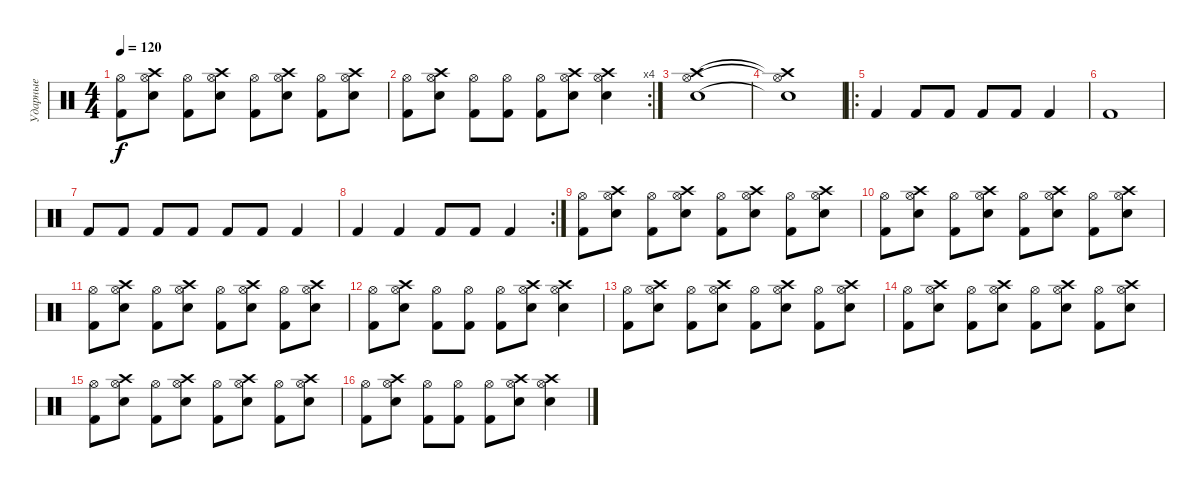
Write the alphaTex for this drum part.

\track ("Ударные" "Ударные") {instrument percussion}
\staff {score}
\articulation defaults
\ts (4 4)
\tempo 120
\clef neutral
\ks c
("Hi-Hat (open)" "Kick (hit) 2").8{dy f} ("Hi-Hat (open)" "Crash high (hit)" "Snare (hit) 2").8 ("Hi-Hat (open)" "Kick (hit) 2").8 ("Hi-Hat (open)" "Crash high (hit)" "Snare (hit) 2").8 ("Hi-Hat (open)" "Kick (hit) 2").8 ("Hi-Hat (open)" "Crash high (hit)" "Snare (hit) 2").8 ("Hi-Hat (open)" "Kick (hit) 2").8 ("Hi-Hat (open)" "Crash high (hit)" "Snare (hit) 2").8 |
\rc 4
("Hi-Hat (open)" "Kick (hit) 2").8 ("Hi-Hat (open)" "Crash high (hit)" "Snare (hit) 2").8 ("Hi-Hat (open)" "Kick (hit) 2").8 ("Hi-Hat (open)" "Kick (hit) 2").8 ("Hi-Hat (open)" "Kick (hit) 2").8 ("Hi-Hat (open)" "Crash high (hit)" "Snare (hit) 2").8 ("Hi-Hat (open)" "Crash high (hit)" "Snare (hit) 2").4 |
("Hi-Hat (open)" "Crash high (hit)" "Snare (hit) 2").1 |
("Hi-Hat (open)"{t} "Crash high (hit)"{t} "Snare (hit) 2"{t}).1 |
\ro "Kick (hit) 2".4 "Kick (hit) 2".8 "Kick (hit) 2".8 "Kick (hit) 2".8 "Kick (hit) 2".8 "Kick (hit) 2".4
|
"Kick (hit) 2".1 |
"Kick (hit) 2".8 "Kick (hit) 2".8 "Kick (hit) 2".8 "Kick (hit) 2".8 "Kick (hit) 2".8 "Kick (hit) 2".8 "Kick (hit) 2".4 |
\rc 2 "Kick (hit) 2".4 "Kick (hit) 2".4 "Kick (hit) 2".8 "Kick (hit) 2".8 "Kick (hit) 2".4
|
("Hi-Hat (open)" "Kick (hit) 2").8 ("Hi-Hat (open)" "Crash high (hit)" "Snare (hit) 2").8 ("Hi-Hat (open)" "Kick (hit) 2").8 ("Hi-Hat (open)" "Crash high (hit)" "Snare (hit) 2").8 ("Hi-Hat (open)" "Kick (hit) 2").8 ("Hi-Hat (open)" "Crash high (hit)" "Snare (hit) 2").8 ("Hi-Hat (open)" "Kick (hit) 2").8 ("Hi-Hat (open)" "Crash high (hit)" "Snare (hit) 2").8 |
("Hi-Hat (open)" "Kick (hit) 2").8 ("Hi-Hat (open)" "Crash high (hit)" "Snare (hit) 2").8 ("Hi-Hat (open)" "Kick (hit) 2").8 ("Hi-Hat (open)" "Crash high (hit)" "Snare (hit) 2").8 ("Hi-Hat (open)" "Kick (hit) 2").8 ("Hi-Hat (open)" "Crash high (hit)" "Snare (hit) 2").8 ("Hi-Hat (open)" "Kick (hit) 2").8 ("Hi-Hat (open)" "Crash high (hit)" "Snare (hit) 2").8 |
("Hi-Hat (open)" "Kick (hit) 2").8 ("Hi-Hat (open)" "Crash high (hit)" "Snare (hit) 2").8 ("Hi-Hat (open)" "Kick (hit) 2").8 ("Hi-Hat (open)" "Crash high (hit)" "Snare (hit) 2").8 ("Hi-Hat (open)" "Kick (hit) 2").8 ("Hi-Hat (open)" "Crash high (hit)" "Snare (hit) 2").8 ("Hi-Hat (open)" "Kick (hit) 2").8 ("Hi-Hat (open)" "Crash high (hit)" "Snare (hit) 2").8 |
("Hi-Hat (open)" "Kick (hit) 2").8 ("Hi-Hat (open)" "Crash high (hit)" "Snare (hit) 2").8 ("Hi-Hat (open)" "Kick (hit) 2").8 ("Hi-Hat (open)" "Kick (hit) 2").8 ("Hi-Hat (open)" "Kick (hit) 2").8 ("Hi-Hat (open)" "Crash high (hit)" "Snare (hit) 2").8 ("Hi-Hat (open)" "Crash high (hit)" "Snare (hit) 2").4 |
("Hi-Hat (open)" "Kick (hit) 2").8 ("Hi-Hat (open)" "Crash high (hit)" "Snare (hit) 2").8 ("Hi-Hat (open)" "Kick (hit) 2").8 ("Hi-Hat (open)" "Crash high (hit)" "Snare (hit) 2").8 ("Hi-Hat (open)" "Kick (hit) 2").8 ("Hi-Hat (open)" "Crash high (hit)" "Snare (hit) 2").8 ("Hi-Hat (open)" "Kick (hit) 2").8 ("Hi-Hat (open)" "Crash high (hit)" "Snare (hit) 2").8 |
("Hi-Hat (open)" "Kick (hit) 2").8 ("Hi-Hat (open)" "Crash high (hit)" "Snare (hit) 2").8 ("Hi-Hat (open)" "Kick (hit) 2").8 ("Hi-Hat (open)" "Crash high (hit)" "Snare (hit) 2").8 ("Hi-Hat (open)" "Kick (hit) 2").8 ("Hi-Hat (open)" "Crash high (hit)" "Snare (hit) 2").8 ("Hi-Hat (open)" "Kick (hit) 2").8 ("Hi-Hat (open)" "Crash high (hit)" "Snare (hit) 2").8 |
("Hi-Hat (open)" "Kick (hit) 2").8 ("Hi-Hat (open)" "Crash high (hit)" "Snare (hit) 2").8 ("Hi-Hat (open)" "Kick (hit) 2").8 ("Hi-Hat (open)" "Crash high (hit)" "Snare (hit) 2").8 ("Hi-Hat (open)" "Kick (hit) 2").8 ("Hi-Hat (open)" "Crash high (hit)" "Snare (hit) 2").8 ("Hi-Hat (open)" "Kick (hit) 2").8 ("Hi-Hat (open)" "Crash high (hit)" "Snare (hit) 2").8 |
("Hi-Hat (open)" "Kick (hit) 2").8 ("Hi-Hat (open)" "Crash high (hit)" "Snare (hit) 2").8 ("Hi-Hat (open)" "Kick (hit) 2").8 ("Hi-Hat (open)" "Kick (hit) 2").8 ("Hi-Hat (open)" "Kick (hit) 2").8 ("Hi-Hat (open)" "Crash high (hit)" "Snare (hit) 2").8 ("Hi-Hat (open)" "Crash high (hit)" "Snare (hit) 2").4
